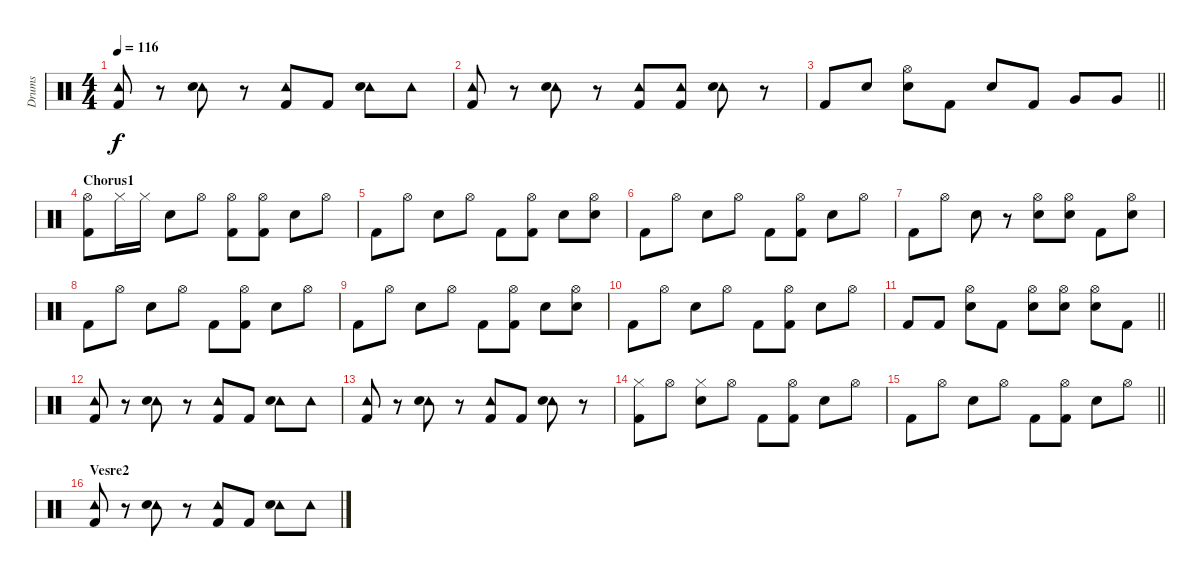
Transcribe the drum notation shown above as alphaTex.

\track ("Drums" "Drums") {instrument percussion}
\staff {score}
\articulation defaults
\ts (4 4)
\tempo 116
\clef neutral
\ks c
("Tambourine (hit)" "Kick (hit) 2").8{dy f} r.8 ("Tambourine (hit)" "Electric Snare (hit)").8 r.8 ("Tambourine (hit)" "Kick (hit) 2").8 "Kick (hit) 2".8 ("Tambourine (hit)" "Electric Snare (hit)").8 "Tambourine (hit)".8 |
("Tambourine (hit)" "Kick (hit) 2").8 r.8 ("Tambourine (hit)" "Electric Snare (hit)").8 r.8 ("Tambourine (hit)" "Kick (hit) 2").8 ("Tambourine (hit)" "Kick (hit) 2").8 ("Tambourine (hit)" "Electric Snare (hit)").8 r.8 |
\barLineRight lightlight "Kick (hit) 2".8 "Electric Snare (hit)".8
("Hi-Hat (open)" "Electric Snare (hit)").8 "Kick (hit) 2".8 "Electric Snare (hit)".8 "Kick (hit) 2".8 "Very Low Tom (hit)".8 "Very Low Tom (hit)".8 |
\section ("" "Chorus1")
("Hi-Hat (open)" "Kick (hit) 2").8 "Hi-Hat (closed)".16 "Hi-Hat (closed)".16 "Electric Snare (hit)".8 "Hi-Hat (open)".8 ("Hi-Hat (open)" "Kick (hit) 2").8 ("Hi-Hat (open)" "Kick (hit) 2").8 "Electric Snare (hit)".8 "Hi-Hat (open)".8 |
"Kick (hit) 2".8 "Hi-Hat (open)".8 "Electric Snare (hit)".8 "Hi-Hat (open)".8 "Kick (hit) 2".8 ("Hi-Hat (open)" "Kick (hit) 2").8 "Electric Snare (hit)".8 ("Hi-Hat (open)" "Electric Snare (hit)").8 |
"Kick (hit) 2".8 "Hi-Hat (open)".8 "Electric Snare (hit)".8 "Hi-Hat (open)".8 "Kick (hit) 2".8 ("Hi-Hat (open)" "Kick (hit) 2").8 "Electric Snare (hit)".8 "Hi-Hat (open)".8 |
"Kick (hit) 2".8 "Hi-Hat (open)".8 "Electric Snare (hit)".8 r.8 ("Hi-Hat (open)" "Electric Snare (hit)").8 ("Hi-Hat (open)" "Electric Snare (hit)").8 "Kick (hit) 2".8 ("Hi-Hat (open)" "Electric Snare (hit)").8 |
"Kick (hit) 2".8 "Hi-Hat (open)".8 "Electric Snare (hit)".8 "Hi-Hat (open)".8 "Kick (hit) 2".8 ("Hi-Hat (open)" "Kick (hit) 2").8 "Electric Snare (hit)".8 "Hi-Hat (open)".8 |
"Kick (hit) 2".8 "Hi-Hat (open)".8 "Electric Snare (hit)".8 "Hi-Hat (open)".8 "Kick (hit) 2".8 ("Hi-Hat (open)" "Kick (hit) 2").8 "Electric Snare (hit)".8 ("Hi-Hat (open)" "Electric Snare (hit)").8 |
"Kick (hit) 2".8 "Hi-Hat (open)".8 "Electric Snare (hit)".8 "Hi-Hat (open)".8 "Kick (hit) 2".8 ("Hi-Hat (open)" "Kick (hit) 2").8 "Electric Snare (hit)".8 "Hi-Hat (open)".8 |
\barLineRight lightlight "Kick (hit) 2".8 "Kick (hit) 2".8
("Hi-Hat (open)" "Electric Snare (hit)").8 "Kick (hit) 2".8 ("Hi-Hat (open)" "Electric Snare (hit)").8 ("Hi-Hat (open)" "Electric Snare (hit)").8 ("Hi-Hat (open)" "Electric Snare (hit)").8 "Kick (hit) 2".8 |
\section ("" "")
("Tambourine (hit)" "Kick (hit) 2").8 r.8 ("Tambourine (hit)" "Electric Snare (hit)").8 r.8 ("Tambourine (hit)" "Kick (hit) 2").8 "Kick (hit) 2".8 ("Tambourine (hit)" "Electric Snare (hit)").8 "Tambourine (hit)".8 |
("Tambourine (hit)" "Kick (hit) 2").8 r.8 ("Tambourine (hit)" "Electric Snare (hit)").8 r.8 ("Tambourine (hit)" "Kick (hit) 2").8 "Kick (hit) 2".8 ("Tambourine (hit)" "Electric Snare (hit)").8 r.8 |
("Hi-Hat (closed)" "Kick (hit) 2").8 "Hi-Hat (open)".8 ("Hi-Hat (closed)" "Electric Snare (hit)").8 "Hi-Hat (open)".8 "Kick (hit) 2".8 ("Hi-Hat (open)" "Kick (hit) 2").8 "Electric Snare (hit)".8 "Hi-Hat (open)".8 |
\barLineRight lightlight "Kick (hit) 2".8 "Hi-Hat (open)".8 "Electric Snare (hit)".8 "Hi-Hat (open)".8 "Kick (hit) 2".8
("Hi-Hat (open)" "Kick (hit) 2").8 "Electric Snare (hit)".8 "Hi-Hat (open)".8 |
\section ("" "Vesre2")
("Tambourine (hit)" "Kick (hit) 2").8 r.8 ("Tambourine (hit)" "Electric Snare (hit)").8 r.8 ("Tambourine (hit)" "Kick (hit) 2").8 "Kick (hit) 2".8 ("Tambourine (hit)" "Electric Snare (hit)").8 "Tambourine (hit)".8
